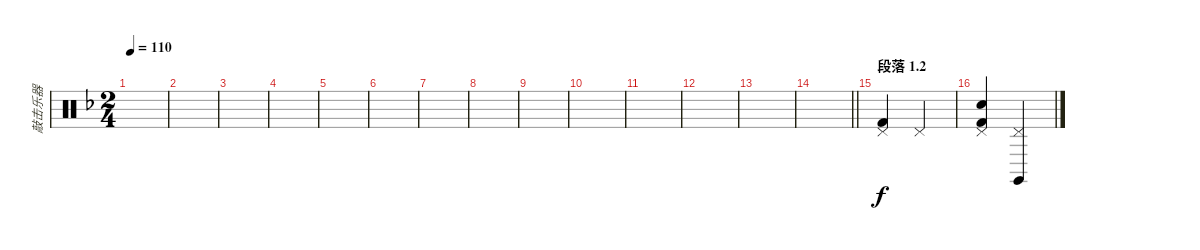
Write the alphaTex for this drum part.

\track ("敲击乐器" "敲击乐器") {instrument percussion}
\staff {score}
\articulation defaults
\ts (2 4)
\tempo 110
\clef neutral
\ks dminor
|
|
|
|
|
|
|
|
|
|
|
|
|
\barLineRight lightlight
|
\section ("" "段落 1.2")
("Pedal Hi-Hat (hit)" "Kick (hit) 2").4 "Pedal Hi-Hat (hit)".4 |
("Pedal Hi-Hat (hit)" "Electric Snare (hit)" "Kick (hit) 2").4 ("Pedal Hi-Hat (hit)" "Claves (hit)").4
